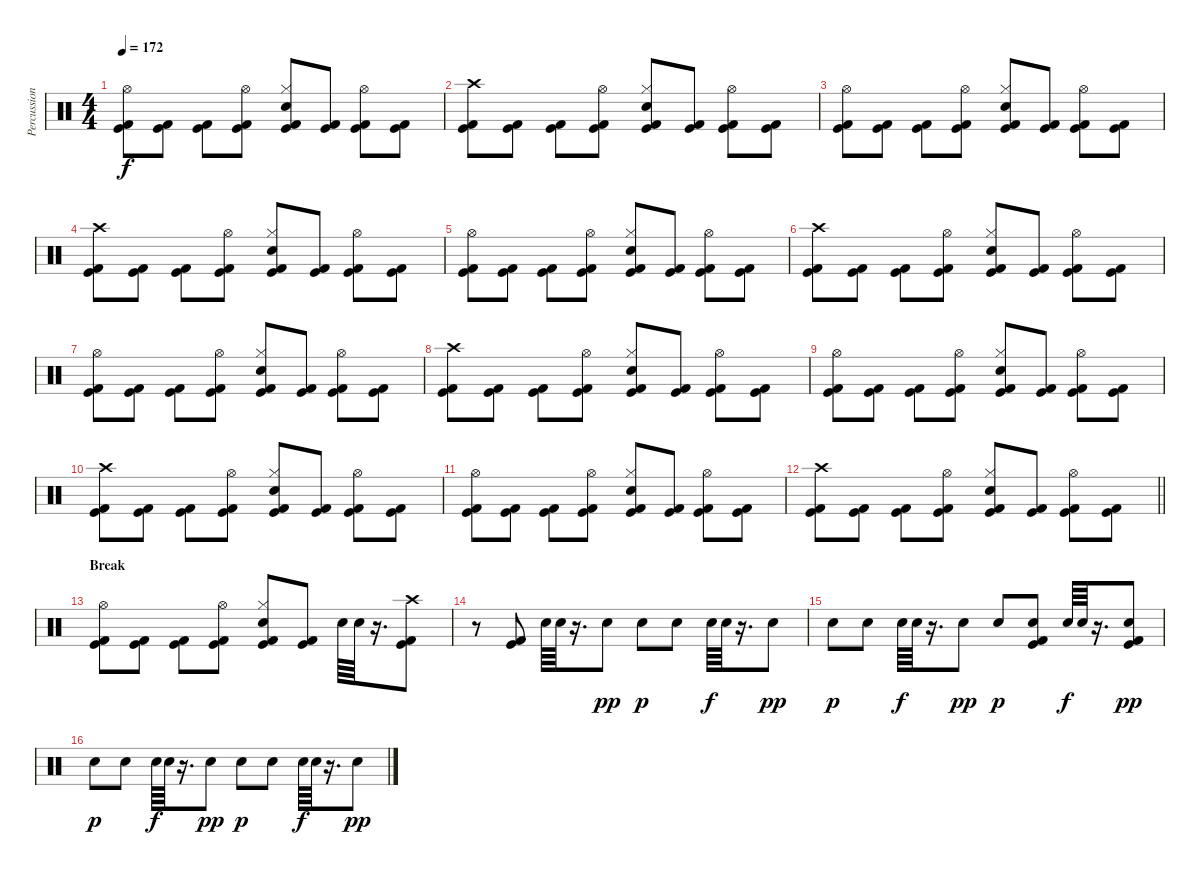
\track ("Percussion" "Percussion") {instrument percussion}
\staff {score}
\articulation defaults
\ts (4 4)
\tempo 172
\clef neutral
\ks c
("Hi-Hat (open)" "Kick (hit)" "Kick (hit) 2").8{dy f} ("Kick (hit)" "Kick (hit) 2").8 ("Kick (hit)" "Kick (hit) 2").8 ("Hi-Hat (open)" "Kick (hit)" "Kick (hit) 2").8 ("Hi-Hat (closed)" "Snare (hit) 2" "Kick (hit)" "Kick (hit) 2").8 ("Kick (hit)" "Kick (hit) 2").8 ("Hi-Hat (open)" "Kick (hit)" "Kick (hit) 2").8 ("Kick (hit)" "Kick (hit) 2").8 |
("Crash high (hit)" "Kick (hit)" "Kick (hit) 2").8 ("Kick (hit)" "Kick (hit) 2").8 ("Kick (hit)" "Kick (hit) 2").8 ("Hi-Hat (open)" "Kick (hit)" "Kick (hit) 2").8 ("Hi-Hat (closed)" "Snare (hit) 2" "Kick (hit)" "Kick (hit) 2").8 ("Kick (hit)" "Kick (hit) 2").8 ("Hi-Hat (open)" "Kick (hit)" "Kick (hit) 2").8 ("Kick (hit)" "Kick (hit) 2").8 |
("Hi-Hat (open)" "Kick (hit)" "Kick (hit) 2").8 ("Kick (hit)" "Kick (hit) 2").8 ("Kick (hit)" "Kick (hit) 2").8 ("Hi-Hat (open)" "Kick (hit)" "Kick (hit) 2").8 ("Hi-Hat (closed)" "Snare (hit) 2" "Kick (hit)" "Kick (hit) 2").8 ("Kick (hit)" "Kick (hit) 2").8 ("Hi-Hat (open)" "Kick (hit)" "Kick (hit) 2").8 ("Kick (hit)" "Kick (hit) 2").8 |
("Crash high (hit)" "Kick (hit)" "Kick (hit) 2").8 ("Kick (hit)" "Kick (hit) 2").8 ("Kick (hit)" "Kick (hit) 2").8 ("Hi-Hat (open)" "Kick (hit)" "Kick (hit) 2").8 ("Hi-Hat (closed)" "Snare (hit) 2" "Kick (hit)" "Kick (hit) 2").8 ("Kick (hit)" "Kick (hit) 2").8 ("Hi-Hat (open)" "Kick (hit)" "Kick (hit) 2").8 ("Kick (hit)" "Kick (hit) 2").8 |
("Hi-Hat (open)" "Kick (hit)" "Kick (hit) 2").8 ("Kick (hit)" "Kick (hit) 2").8 ("Kick (hit)" "Kick (hit) 2").8 ("Hi-Hat (open)" "Kick (hit)" "Kick (hit) 2").8 ("Hi-Hat (closed)" "Snare (hit) 2" "Kick (hit)" "Kick (hit) 2").8 ("Kick (hit)" "Kick (hit) 2").8 ("Hi-Hat (open)" "Kick (hit)" "Kick (hit) 2").8 ("Kick (hit)" "Kick (hit) 2").8 |
("Crash high (hit)" "Kick (hit)" "Kick (hit) 2").8 ("Kick (hit)" "Kick (hit) 2").8 ("Kick (hit)" "Kick (hit) 2").8 ("Hi-Hat (open)" "Kick (hit)" "Kick (hit) 2").8 ("Hi-Hat (closed)" "Snare (hit) 2" "Kick (hit)" "Kick (hit) 2").8 ("Kick (hit)" "Kick (hit) 2").8 ("Hi-Hat (open)" "Kick (hit)" "Kick (hit) 2").8 ("Kick (hit)" "Kick (hit) 2").8 |
("Hi-Hat (open)" "Kick (hit)" "Kick (hit) 2").8 ("Kick (hit)" "Kick (hit) 2").8 ("Kick (hit)" "Kick (hit) 2").8 ("Hi-Hat (open)" "Kick (hit)" "Kick (hit) 2").8 ("Hi-Hat (closed)" "Snare (hit) 2" "Kick (hit)" "Kick (hit) 2").8 ("Kick (hit)" "Kick (hit) 2").8 ("Hi-Hat (open)" "Kick (hit)" "Kick (hit) 2").8 ("Kick (hit)" "Kick (hit) 2").8 |
("Crash high (hit)" "Kick (hit)" "Kick (hit) 2").8 ("Kick (hit)" "Kick (hit) 2").8 ("Kick (hit)" "Kick (hit) 2").8 ("Hi-Hat (open)" "Kick (hit)" "Kick (hit) 2").8 ("Hi-Hat (closed)" "Snare (hit) 2" "Kick (hit)" "Kick (hit) 2").8 ("Kick (hit)" "Kick (hit) 2").8 ("Hi-Hat (open)" "Kick (hit)" "Kick (hit) 2").8 ("Kick (hit)" "Kick (hit) 2").8 |
("Hi-Hat (open)" "Kick (hit)" "Kick (hit) 2").8 ("Kick (hit)" "Kick (hit) 2").8 ("Kick (hit)" "Kick (hit) 2").8 ("Hi-Hat (open)" "Kick (hit)" "Kick (hit) 2").8 ("Hi-Hat (closed)" "Snare (hit) 2" "Kick (hit)" "Kick (hit) 2").8 ("Kick (hit)" "Kick (hit) 2").8 ("Hi-Hat (open)" "Kick (hit)" "Kick (hit) 2").8 ("Kick (hit)" "Kick (hit) 2").8 |
("Crash high (hit)" "Kick (hit)" "Kick (hit) 2").8 ("Kick (hit)" "Kick (hit) 2").8 ("Kick (hit)" "Kick (hit) 2").8 ("Hi-Hat (open)" "Kick (hit)" "Kick (hit) 2").8 ("Hi-Hat (closed)" "Snare (hit) 2" "Kick (hit)" "Kick (hit) 2").8 ("Kick (hit)" "Kick (hit) 2").8 ("Hi-Hat (open)" "Kick (hit)" "Kick (hit) 2").8 ("Kick (hit)" "Kick (hit) 2").8 |
("Hi-Hat (open)" "Kick (hit)" "Kick (hit) 2").8 ("Kick (hit)" "Kick (hit) 2").8 ("Kick (hit)" "Kick (hit) 2").8 ("Hi-Hat (open)" "Kick (hit)" "Kick (hit) 2").8 ("Hi-Hat (closed)" "Snare (hit) 2" "Kick (hit)" "Kick (hit) 2").8 ("Kick (hit)" "Kick (hit) 2").8 ("Hi-Hat (open)" "Kick (hit)" "Kick (hit) 2").8 ("Kick (hit)" "Kick (hit) 2").8 |
\barLineRight lightlight
("Crash high (hit)" "Kick (hit)" "Kick (hit) 2").8 ("Kick (hit)" "Kick (hit) 2").8 ("Kick (hit)" "Kick (hit) 2").8 ("Hi-Hat (open)" "Kick (hit)" "Kick (hit) 2").8 ("Hi-Hat (closed)" "Snare (hit) 2" "Kick (hit)" "Kick (hit) 2").8 ("Kick (hit)" "Kick (hit) 2").8 ("Hi-Hat (open)" "Kick (hit)" "Kick (hit) 2").8 ("Kick (hit)" "Kick (hit) 2").8 |
\section ("" "Break")
("Hi-Hat (open)" "Kick (hit)" "Kick (hit) 2").8 ("Kick (hit)" "Kick (hit) 2").8 ("Kick (hit)" "Kick (hit) 2").8 ("Hi-Hat (open)" "Kick (hit)" "Kick (hit) 2").8 ("Hi-Hat (closed)" "Snare (hit) 2" "Kick (hit)" "Kick (hit) 2").8 ("Kick (hit)" "Kick (hit) 2").8 "Snare (hit) 2".64 "Snare (hit) 2".64 r.16{d} ("Crash high (hit)" "Kick (hit)" "Kick (hit) 2").8 |
r.8 ("Kick (hit)" "Kick (hit) 2").8 "Snare (hit) 2".64 "Snare (hit) 2".64 r.16{d} "Snare (hit) 2".8{dy pp} "Snare (hit) 2".8{dy p} "Snare (hit) 2".8 "Snare (hit) 2".64{dy f} "Snare (hit) 2".64 r.16{d} "Snare (hit) 2".8{dy pp} |
"Snare (hit) 2".8{dy p} "Snare (hit) 2".8 "Snare (hit) 2".64{dy f} "Snare (hit) 2".64 r.16{d} "Snare (hit) 2".8{dy pp} "Snare (hit) 2".8{dy p} ("Snare (hit) 2" "Kick (hit)" "Kick (hit) 2").8 "Snare (hit) 2".64{dy f} "Snare (hit) 2".64 r.16{d} ("Snare (hit) 2" "Kick (hit)" "Kick (hit) 2").8{dy pp} |
"Snare (hit) 2".8{dy p} "Snare (hit) 2".8 "Snare (hit) 2".64{dy f} "Snare (hit) 2".64 r.16{d} "Snare (hit) 2".8{dy pp} "Snare (hit) 2".8{dy p} "Snare (hit) 2".8 "Snare (hit) 2".64{dy f} "Snare (hit) 2".64 r.16{d} "Snare (hit) 2".8{dy pp}
